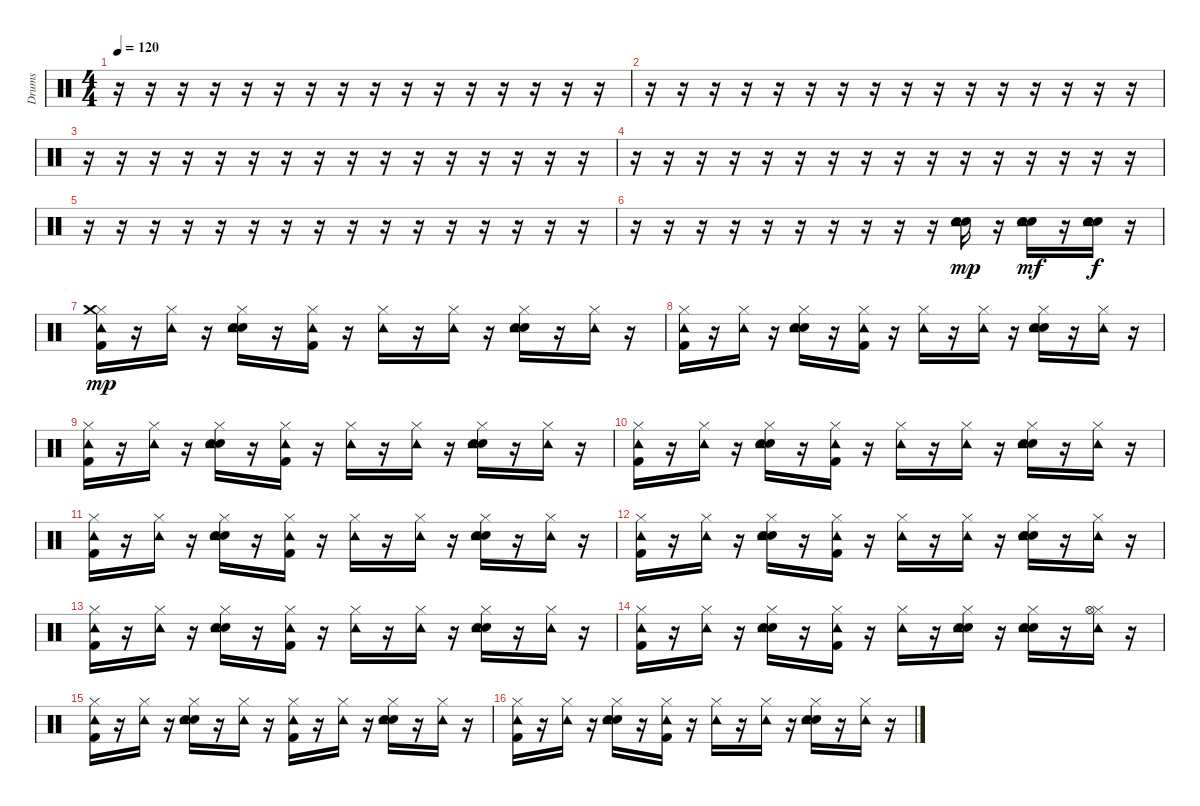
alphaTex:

\track ("Drums" "Drums") {instrument percussion}
\staff {score}
\articulation defaults
\ts (4 4)
\tempo 120
\clef neutral
\ks c
r.16{dy ff} r.16 r.16 r.16 r.16 r.16 r.16 r.16 r.16 r.16 r.16 r.16 r.16 r.16 r.16 r.16 |
r.16 r.16 r.16 r.16 r.16 r.16 r.16 r.16 r.16 r.16 r.16 r.16 r.16 r.16 r.16 r.16 |
r.16 r.16 r.16 r.16 r.16 r.16 r.16 r.16 r.16 r.16 r.16 r.16 r.16 r.16 r.16 r.16 |
r.16 r.16 r.16 r.16 r.16 r.16 r.16 r.16 r.16 r.16 r.16 r.16 r.16 r.16 r.16 r.16 |
r.16 r.16 r.16 r.16 r.16 r.16 r.16 r.16 r.16 r.16 r.16 r.16 r.16 r.16 r.16 r.16 |
r.16 r.16 r.16 r.16 r.16 r.16 r.16 r.16 r.16 r.16 ("Snare (hit) 2" "Electric Snare (hit)" "Tambourine (hit)").16{dy mp} r.16 ("Snare (hit) 2" "Electric Snare (hit)" "Tambourine (hit)").16{dy mf} r.16 ("Snare (hit) 2" "Electric Snare (hit)" "Tambourine (hit)").16{dy f} r.16 |
("Hi-Hat (closed)" "Crash medium (hit)" "Tambourine (hit)" "Kick (hit) 2").16{dy mp} r.16 ("Hi-Hat (closed)" "Tambourine (hit)").16 r.16 ("Hi-Hat (closed)" "Snare (hit) 2" "Electric Snare (hit)" "Tambourine (hit)").16 r.16 ("Hi-Hat (closed)" "Tambourine (hit)" "Kick (hit) 2").16 r.16 ("Hi-Hat (closed)" "Tambourine (hit)").16 r.16 ("Hi-Hat (closed)" "Tambourine (hit)").16 r.16 ("Hi-Hat (closed)" "Snare (hit) 2" "Electric Snare (hit)" "Tambourine (hit)").16 r.16 ("Hi-Hat (closed)" "Tambourine (hit)").16 r.16 |
("Hi-Hat (closed)" "Tambourine (hit)" "Kick (hit) 2").16 r.16 ("Hi-Hat (closed)" "Tambourine (hit)").16 r.16 ("Hi-Hat (closed)" "Snare (hit) 2" "Electric Snare (hit)" "Tambourine (hit)").16 r.16 ("Hi-Hat (closed)" "Tambourine (hit)" "Kick (hit) 2").16 r.16 ("Hi-Hat (closed)" "Tambourine (hit)").16 r.16 ("Hi-Hat (closed)" "Tambourine (hit)").16 r.16 ("Hi-Hat (closed)" "Snare (hit) 2" "Electric Snare (hit)" "Tambourine (hit)").16 r.16 ("Hi-Hat (closed)" "Tambourine (hit)").16 r.16 |
("Hi-Hat (closed)" "Tambourine (hit)" "Kick (hit) 2").16 r.16 ("Hi-Hat (closed)" "Tambourine (hit)").16 r.16 ("Hi-Hat (closed)" "Snare (hit) 2" "Electric Snare (hit)" "Tambourine (hit)").16 r.16 ("Hi-Hat (closed)" "Tambourine (hit)" "Kick (hit) 2").16 r.16 ("Hi-Hat (closed)" "Tambourine (hit)").16 r.16 ("Hi-Hat (closed)" "Tambourine (hit)").16 r.16 ("Hi-Hat (closed)" "Snare (hit) 2" "Electric Snare (hit)" "Tambourine (hit)").16 r.16 ("Hi-Hat (closed)" "Tambourine (hit)").16 r.16 |
("Hi-Hat (closed)" "Tambourine (hit)" "Kick (hit) 2").16 r.16 ("Hi-Hat (closed)" "Tambourine (hit)").16 r.16 ("Hi-Hat (closed)" "Snare (hit) 2" "Electric Snare (hit)" "Tambourine (hit)").16 r.16 ("Hi-Hat (closed)" "Tambourine (hit)" "Kick (hit) 2").16 r.16 ("Hi-Hat (closed)" "Tambourine (hit)").16 r.16 ("Hi-Hat (closed)" "Tambourine (hit)").16 r.16 ("Hi-Hat (closed)" "Snare (hit) 2" "Electric Snare (hit)" "Tambourine (hit)").16 r.16 ("Hi-Hat (closed)" "Tambourine (hit)").16 r.16 |
("Hi-Hat (closed)" "Tambourine (hit)" "Kick (hit) 2").16 r.16 ("Hi-Hat (closed)" "Tambourine (hit)").16 r.16 ("Hi-Hat (closed)" "Snare (hit) 2" "Electric Snare (hit)" "Tambourine (hit)").16 r.16 ("Hi-Hat (closed)" "Tambourine (hit)" "Kick (hit) 2").16 r.16 ("Hi-Hat (closed)" "Tambourine (hit)").16 r.16 ("Hi-Hat (closed)" "Tambourine (hit)").16 r.16 ("Hi-Hat (closed)" "Snare (hit) 2" "Electric Snare (hit)" "Tambourine (hit)").16 r.16 ("Hi-Hat (closed)" "Tambourine (hit)").16 r.16 |
("Hi-Hat (closed)" "Tambourine (hit)" "Kick (hit) 2").16 r.16 ("Hi-Hat (closed)" "Tambourine (hit)").16 r.16 ("Hi-Hat (closed)" "Snare (hit) 2" "Electric Snare (hit)" "Tambourine (hit)").16 r.16 ("Hi-Hat (closed)" "Tambourine (hit)" "Kick (hit) 2").16 r.16 ("Hi-Hat (closed)" "Tambourine (hit)").16 r.16 ("Hi-Hat (closed)" "Tambourine (hit)").16 r.16 ("Hi-Hat (closed)" "Snare (hit) 2" "Electric Snare (hit)" "Tambourine (hit)").16 r.16 ("Hi-Hat (closed)" "Tambourine (hit)").16 r.16 |
("Hi-Hat (closed)" "Tambourine (hit)" "Kick (hit) 2").16 r.16 ("Hi-Hat (closed)" "Tambourine (hit)").16 r.16 ("Hi-Hat (closed)" "Snare (hit) 2" "Electric Snare (hit)" "Tambourine (hit)").16 r.16 ("Hi-Hat (closed)" "Tambourine (hit)" "Kick (hit) 2").16 r.16 ("Hi-Hat (closed)" "Tambourine (hit)").16 r.16 ("Hi-Hat (closed)" "Tambourine (hit)").16 r.16 ("Hi-Hat (closed)" "Snare (hit) 2" "Electric Snare (hit)" "Tambourine (hit)").16 r.16 ("Hi-Hat (closed)" "Tambourine (hit)").16 r.16 |
("Hi-Hat (closed)" "Tambourine (hit)" "Kick (hit) 2").16 r.16 ("Hi-Hat (closed)" "Tambourine (hit)").16 r.16 ("Hi-Hat (closed)" "Snare (hit) 2" "Electric Snare (hit)" "Tambourine (hit)").16 r.16 ("Hi-Hat (closed)" "Tambourine (hit)" "Kick (hit) 2").16 r.16 ("Hi-Hat (closed)" "Tambourine (hit)").16 r.16 ("Hi-Hat (closed)" "Snare (hit) 2" "Electric Snare (hit)" "Tambourine (hit)").16 r.16 ("Hi-Hat (closed)" "Snare (hit) 2" "Electric Snare (hit)" "Tambourine (hit)").16 r.16 ("Hi-Hat (closed)" "Hi-Hat (open)" "Tambourine (hit)").16 r.16 |
("Hi-Hat (closed)" "Tambourine (hit)" "Kick (hit) 2").16 r.16 ("Hi-Hat (closed)" "Tambourine (hit)").16 r.16 ("Hi-Hat (closed)" "Snare (hit) 2" "Electric Snare (hit)" "Tambourine (hit)").16 r.16 ("Hi-Hat (closed)" "Tambourine (hit)").16 r.16 ("Hi-Hat (closed)" "Tambourine (hit)" "Kick (hit) 2").16 r.16 ("Hi-Hat (closed)" "Tambourine (hit)").16 r.16 ("Hi-Hat (closed)" "Snare (hit) 2" "Electric Snare (hit)" "Tambourine (hit)").16 r.16 ("Hi-Hat (closed)" "Tambourine (hit)").16 r.16 |
("Hi-Hat (closed)" "Tambourine (hit)" "Kick (hit) 2").16 r.16 ("Hi-Hat (closed)" "Tambourine (hit)").16 r.16 ("Hi-Hat (closed)" "Snare (hit) 2" "Electric Snare (hit)" "Tambourine (hit)").16 r.16 ("Hi-Hat (closed)" "Tambourine (hit)" "Kick (hit) 2").16 r.16 ("Hi-Hat (closed)" "Tambourine (hit)").16 r.16 ("Hi-Hat (closed)" "Tambourine (hit)").16 r.16 ("Hi-Hat (closed)" "Snare (hit) 2" "Electric Snare (hit)" "Tambourine (hit)").16 r.16 ("Hi-Hat (closed)" "Tambourine (hit)").16 r.16
